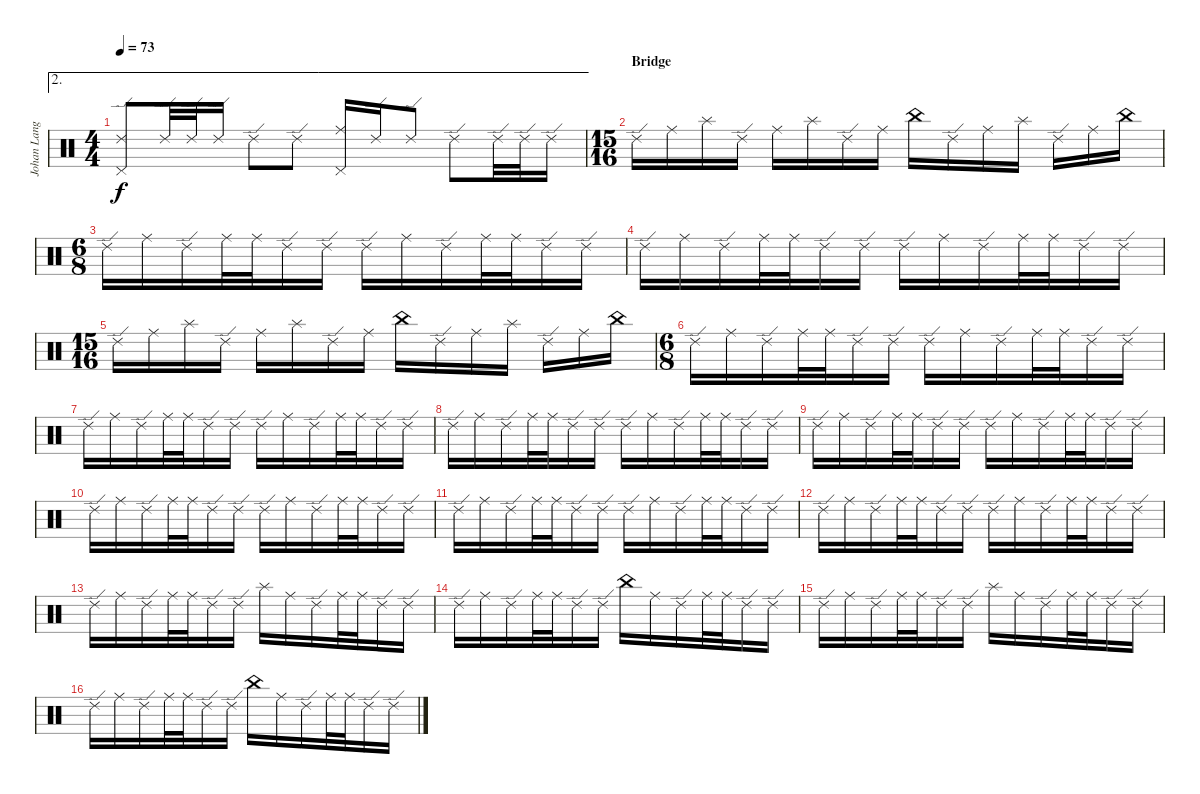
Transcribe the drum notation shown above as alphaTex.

\track ("Johan Langell" "Johan Lang") {instrument percussion}
\staff {score}
\articulation defaults
\ae 2
\ts (4 4)
\tempo 73
\clef neutral
\ks c
("Ride (edge) 2" "Pedal Hi-Hat (hit)").8{dy f} "Ride (edge) 2".32 "Ride (edge) 2".32 "Ride (edge) 2".16 "Ride (edge) 2".8 "Ride (edge) 2".8 ("Ride (middle)" "Pedal Hi-Hat (hit)").16 "Ride (edge) 2".16 "Ride (edge) 2".8 "Ride (edge) 2".8 "Ride (edge) 2".32 "Ride (edge) 2".32 "Ride (edge) 2".16 |
\ts (15 16)
\section ("" "Bridge")
"Ride (edge) 2".16 "Ride (middle)".16 "Splash (hit)".16 "Ride (edge) 2".16 "Ride (middle)".16 "Splash (hit)".16 "Ride (edge) 2".16 "Ride (middle)".16 "China (hit)".16 "Ride (edge) 2".16 "Ride (middle)".16 "Splash (hit)".16 "Ride (edge) 2".16 "Ride (middle)".16 "China (hit)".16 |
\ts (6 8)
"Ride (edge) 2".16 "Ride (middle)".16 "Ride (edge) 2".16 "Ride (middle)".32 "Ride (middle)".32 "Ride (edge) 2".16 "Ride (edge) 2".16 "Ride (edge) 2".16 "Ride (middle)".16 "Ride (edge) 2".16 "Ride (middle)".32 "Ride (middle)".32 "Ride (edge) 2".16 "Ride (edge) 2".16 |
"Ride (edge) 2".16 "Ride (middle)".16 "Ride (edge) 2".16 "Ride (middle)".32 "Ride (middle)".32 "Ride (edge) 2".16 "Ride (edge) 2".16 "Ride (edge) 2".16 "Ride (middle)".16 "Ride (edge) 2".16 "Ride (middle)".32 "Ride (middle)".32 "Ride (edge) 2".16 "Ride (edge) 2".16 |
\ts (15 16)
"Ride (edge) 2".16 "Ride (middle)".16 "Splash (hit)".16 "Ride (edge) 2".16 "Ride (middle)".16 "Splash (hit)".16 "Ride (edge) 2".16 "Ride (middle)".16 "China (hit)".16 "Ride (edge) 2".16 "Ride (middle)".16 "Splash (hit)".16 "Ride (edge) 2".16 "Ride (middle)".16 "China (hit)".16 |
\ts (6 8)
"Ride (edge) 2".16 "Ride (middle)".16 "Ride (edge) 2".16 "Ride (middle)".32 "Ride (middle)".32 "Ride (edge) 2".16 "Ride (edge) 2".16 "Ride (edge) 2".16 "Ride (middle)".16 "Ride (edge) 2".16 "Ride (middle)".32 "Ride (middle)".32 "Ride (edge) 2".16 "Ride (edge) 2".16 |
"Ride (edge) 2".16 "Ride (middle)".16 "Ride (edge) 2".16 "Ride (middle)".32 "Ride (middle)".32 "Ride (edge) 2".16 "Ride (edge) 2".16 "Ride (edge) 2".16 "Ride (middle)".16 "Ride (edge) 2".16 "Ride (middle)".32 "Ride (middle)".32 "Ride (edge) 2".16 "Ride (edge) 2".16 |
"Ride (edge) 2".16 "Ride (middle)".16 "Ride (edge) 2".16 "Ride (middle)".32 "Ride (middle)".32 "Ride (edge) 2".16 "Ride (edge) 2".16 "Ride (edge) 2".16 "Ride (middle)".16 "Ride (edge) 2".16 "Ride (middle)".32 "Ride (middle)".32 "Ride (edge) 2".16 "Ride (edge) 2".16 |
"Ride (edge) 2".16 "Ride (middle)".16 "Ride (edge) 2".16 "Ride (middle)".32 "Ride (middle)".32 "Ride (edge) 2".16 "Ride (edge) 2".16 "Ride (edge) 2".16 "Ride (middle)".16 "Ride (edge) 2".16 "Ride (middle)".32 "Ride (middle)".32 "Ride (edge) 2".16 "Ride (edge) 2".16 |
"Ride (edge) 2".16 "Ride (middle)".16 "Ride (edge) 2".16 "Ride (middle)".32 "Ride (middle)".32 "Ride (edge) 2".16 "Ride (edge) 2".16 "Ride (edge) 2".16 "Ride (middle)".16 "Ride (edge) 2".16 "Ride (middle)".32 "Ride (middle)".32 "Ride (edge) 2".16 "Ride (edge) 2".16 |
"Ride (edge) 2".16 "Ride (middle)".16 "Ride (edge) 2".16 "Ride (middle)".32 "Ride (middle)".32 "Ride (edge) 2".16 "Ride (edge) 2".16 "Ride (edge) 2".16 "Ride (middle)".16 "Ride (edge) 2".16 "Ride (middle)".32 "Ride (middle)".32 "Ride (edge) 2".16 "Ride (edge) 2".16 |
"Ride (edge) 2".16 "Ride (middle)".16 "Ride (edge) 2".16 "Ride (middle)".32 "Ride (middle)".32 "Ride (edge) 2".16 "Ride (edge) 2".16 "Ride (edge) 2".16 "Ride (middle)".16 "Ride (edge) 2".16 "Ride (middle)".32 "Ride (middle)".32 "Ride (edge) 2".16 "Ride (edge) 2".16 |
"Ride (edge) 2".16 "Ride (middle)".16 "Ride (edge) 2".16 "Ride (middle)".32 "Ride (middle)".32 "Ride (edge) 2".16 "Ride (edge) 2".16 "Splash (hit)".16 "Ride (middle)".16 "Ride (edge) 2".16 "Ride (middle)".32 "Ride (middle)".32 "Ride (edge) 2".16 "Ride (edge) 2".16 |
"Ride (edge) 2".16 "Ride (middle)".16 "Ride (edge) 2".16 "Ride (middle)".32 "Ride (middle)".32 "Ride (edge) 2".16 "Ride (edge) 2".16 "China (hit)".16 "Ride (middle)".16 "Ride (edge) 2".16 "Ride (middle)".32 "Ride (middle)".32 "Ride (edge) 2".16 "Ride (edge) 2".16 |
"Ride (edge) 2".16 "Ride (middle)".16 "Ride (edge) 2".16 "Ride (middle)".32 "Ride (middle)".32 "Ride (edge) 2".16 "Ride (edge) 2".16 "Splash (hit)".16 "Ride (middle)".16 "Ride (edge) 2".16 "Ride (middle)".32 "Ride (middle)".32 "Ride (edge) 2".16 "Ride (edge) 2".16 |
"Ride (edge) 2".16 "Ride (middle)".16 "Ride (edge) 2".16 "Ride (middle)".32 "Ride (middle)".32 "Ride (edge) 2".16 "Ride (edge) 2".16 "China (hit)".16 "Ride (middle)".16 "Ride (edge) 2".16 "Ride (middle)".32 "Ride (middle)".32 "Ride (edge) 2".16 "Ride (edge) 2".16
